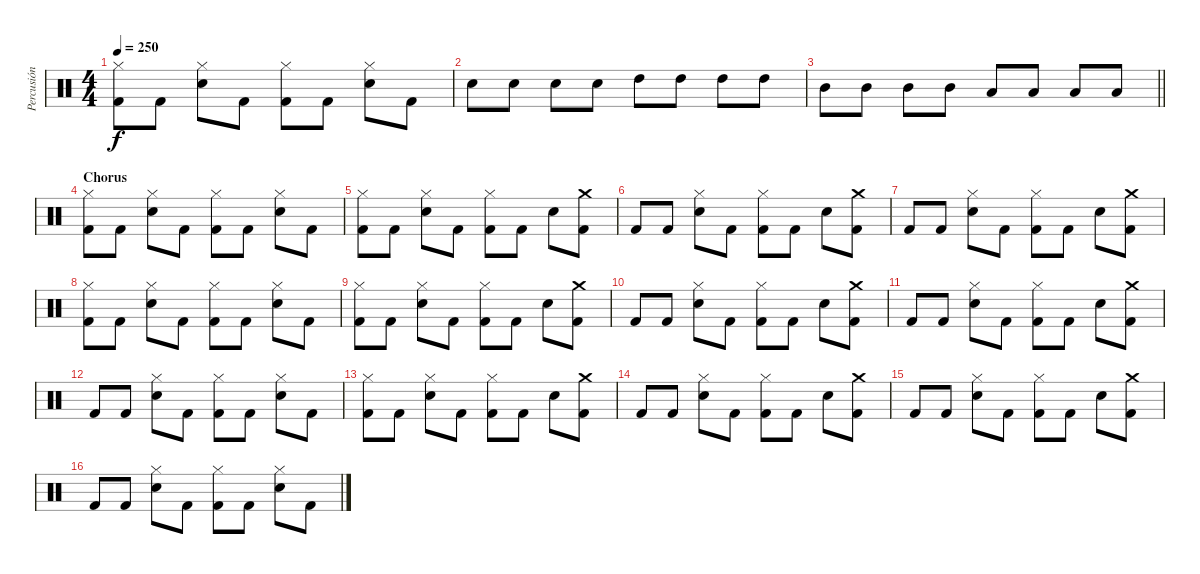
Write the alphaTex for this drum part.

\track ("Percusión" "Percusión") {instrument percussion}
\staff {score}
\articulation defaults
\ts (4 4)
\tempo 250
\clef neutral
\ks c
("Hi-Hat (closed)" "Kick (hit) 2").8{dy f} "Kick (hit) 2".8 ("Electric Snare (hit)" "Hi-Hat (closed)").8 "Kick (hit) 2".8 ("Hi-Hat (closed)" "Kick (hit) 2").8 "Kick (hit) 2".8 ("Electric Snare (hit)" "Hi-Hat (closed)").8 "Kick (hit) 2".8 |
"Electric Snare (hit)".8 "Electric Snare (hit)".8 "Electric Snare (hit)".8 "Electric Snare (hit)".8 "High Tom (hit)".8 "High Tom (hit)".8 "High Tom (hit)".8 "High Tom (hit)".8 |
\barLineRight lightlight "Mid Tom (hit)".8 "Mid Tom (hit)".8 "Mid Tom (hit)".8 "Mid Tom (hit)".8 "Low Tom (hit)".8 "Low Tom (hit)".8 "Low Tom (hit)".8 "Low Tom (hit)".8
|
\section ("" "Chorus")
("Hi-Hat (closed)" "Kick (hit) 2").8 "Kick (hit) 2".8 ("Electric Snare (hit)" "Hi-Hat (closed)").8 "Kick (hit) 2".8 ("Hi-Hat (closed)" "Kick (hit) 2").8 "Kick (hit) 2".8 ("Electric Snare (hit)" "Hi-Hat (closed)").8 "Kick (hit) 2".8 |
("Hi-Hat (closed)" "Kick (hit) 2").8 "Kick (hit) 2".8 ("Electric Snare (hit)" "Hi-Hat (closed)").8 "Kick (hit) 2".8 ("Hi-Hat (closed)" "Kick (hit) 2").8 "Kick (hit) 2".8 "Electric Snare (hit)".8 ("Crash medium (hit)" "Kick (hit) 2").8 |
"Kick (hit) 2".8 "Kick (hit) 2".8 ("Electric Snare (hit)" "Hi-Hat (closed)").8 "Kick (hit) 2".8 ("Hi-Hat (closed)" "Kick (hit) 2").8 "Kick (hit) 2".8 "Electric Snare (hit)".8 ("Crash medium (hit)" "Kick (hit) 2").8 |
"Kick (hit) 2".8 "Kick (hit) 2".8 ("Electric Snare (hit)" "Hi-Hat (closed)").8 "Kick (hit) 2".8 ("Hi-Hat (closed)" "Kick (hit) 2").8 "Kick (hit) 2".8 "Electric Snare (hit)".8 ("Crash medium (hit)" "Kick (hit) 2").8 |
("Hi-Hat (closed)" "Kick (hit) 2").8 "Kick (hit) 2".8 ("Electric Snare (hit)" "Hi-Hat (closed)").8 "Kick (hit) 2".8 ("Hi-Hat (closed)" "Kick (hit) 2").8 "Kick (hit) 2".8 ("Electric Snare (hit)" "Hi-Hat (closed)").8 "Kick (hit) 2".8 |
("Hi-Hat (closed)" "Kick (hit) 2").8 "Kick (hit) 2".8 ("Electric Snare (hit)" "Hi-Hat (closed)").8 "Kick (hit) 2".8 ("Hi-Hat (closed)" "Kick (hit) 2").8 "Kick (hit) 2".8 "Electric Snare (hit)".8 ("Crash medium (hit)" "Kick (hit) 2").8 |
"Kick (hit) 2".8 "Kick (hit) 2".8 ("Electric Snare (hit)" "Hi-Hat (closed)").8 "Kick (hit) 2".8 ("Hi-Hat (closed)" "Kick (hit) 2").8 "Kick (hit) 2".8 "Electric Snare (hit)".8 ("Crash medium (hit)" "Kick (hit) 2").8 |
"Kick (hit) 2".8 "Kick (hit) 2".8 ("Electric Snare (hit)" "Hi-Hat (closed)").8 "Kick (hit) 2".8 ("Hi-Hat (closed)" "Kick (hit) 2").8 "Kick (hit) 2".8 "Electric Snare (hit)".8 ("Crash medium (hit)" "Kick (hit) 2").8 |
"Kick (hit) 2".8 "Kick (hit) 2".8 ("Electric Snare (hit)" "Hi-Hat (closed)").8 "Kick (hit) 2".8 ("Hi-Hat (closed)" "Kick (hit) 2").8 "Kick (hit) 2".8 ("Electric Snare (hit)" "Hi-Hat (closed)").8 "Kick (hit) 2".8 |
("Hi-Hat (closed)" "Kick (hit) 2").8 "Kick (hit) 2".8 ("Electric Snare (hit)" "Hi-Hat (closed)").8 "Kick (hit) 2".8 ("Hi-Hat (closed)" "Kick (hit) 2").8 "Kick (hit) 2".8 "Electric Snare (hit)".8 ("Crash medium (hit)" "Kick (hit) 2").8 |
"Kick (hit) 2".8 "Kick (hit) 2".8 ("Electric Snare (hit)" "Hi-Hat (closed)").8 "Kick (hit) 2".8 ("Hi-Hat (closed)" "Kick (hit) 2").8 "Kick (hit) 2".8 "Electric Snare (hit)".8 ("Crash medium (hit)" "Kick (hit) 2").8 |
"Kick (hit) 2".8 "Kick (hit) 2".8 ("Electric Snare (hit)" "Hi-Hat (closed)").8 "Kick (hit) 2".8 ("Hi-Hat (closed)" "Kick (hit) 2").8 "Kick (hit) 2".8 "Electric Snare (hit)".8 ("Crash medium (hit)" "Kick (hit) 2").8 |
"Kick (hit) 2".8 "Kick (hit) 2".8 ("Electric Snare (hit)" "Hi-Hat (closed)").8 "Kick (hit) 2".8 ("Hi-Hat (closed)" "Kick (hit) 2").8 "Kick (hit) 2".8 ("Electric Snare (hit)" "Hi-Hat (closed)").8 "Kick (hit) 2".8
